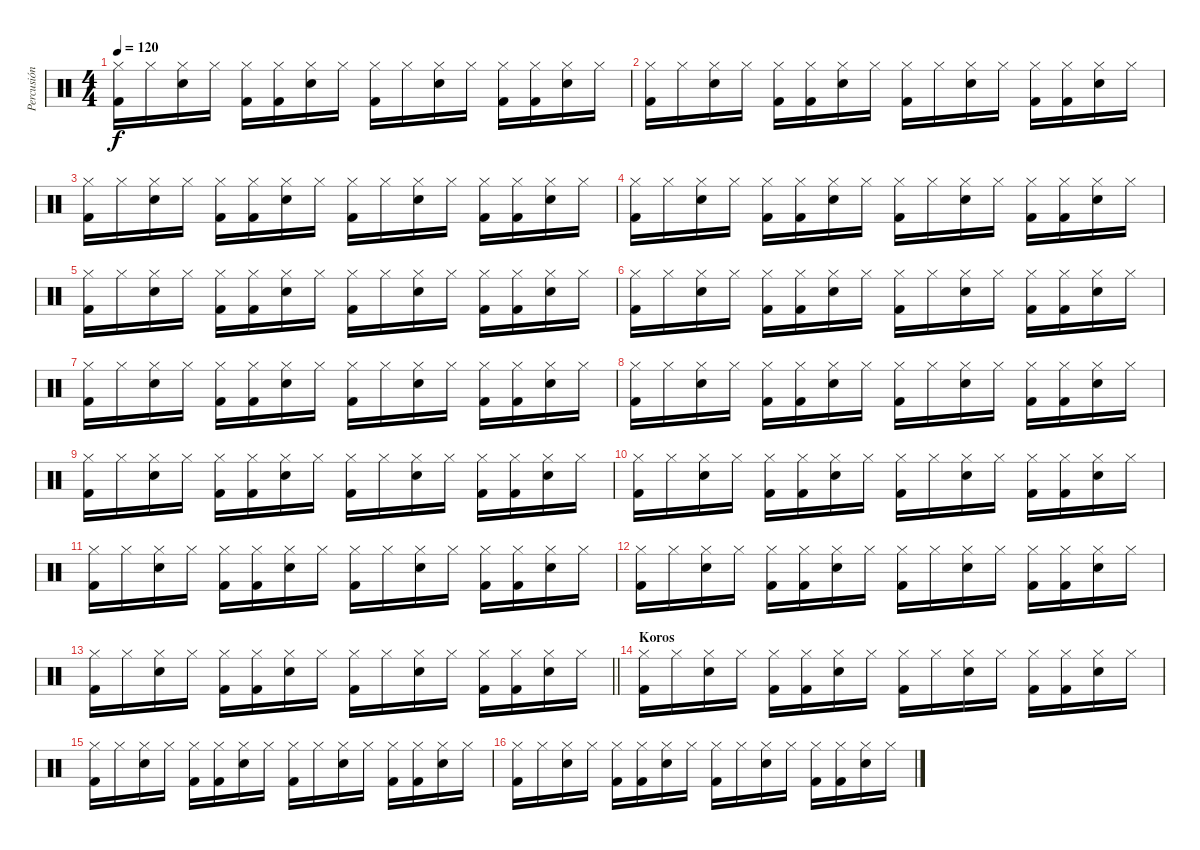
\track ("Percusión" "Percusión") {instrument percussion}
\staff {score}
\articulation defaults
\ts (4 4)
\tempo 120
\clef neutral
\ks c
("Kick (hit) 2" "Hi-Hat (closed)").16{dy f} "Hi-Hat (closed)".16 ("Electric Snare (hit)" "Hi-Hat (closed)").16 "Hi-Hat (closed)".16 ("Kick (hit) 2" "Hi-Hat (closed)").16 ("Kick (hit) 2" "Hi-Hat (closed)").16 ("Electric Snare (hit)" "Hi-Hat (closed)").16 "Hi-Hat (closed)".16 ("Kick (hit) 2" "Hi-Hat (closed)").16 "Hi-Hat (closed)".16 ("Electric Snare (hit)" "Hi-Hat (closed)").16 "Hi-Hat (closed)".16 ("Kick (hit) 2" "Hi-Hat (closed)").16 ("Kick (hit) 2" "Hi-Hat (closed)").16 ("Electric Snare (hit)" "Hi-Hat (closed)").16 "Hi-Hat (closed)".16 |
("Kick (hit) 2" "Hi-Hat (closed)").16 "Hi-Hat (closed)".16 ("Electric Snare (hit)" "Hi-Hat (closed)").16 "Hi-Hat (closed)".16 ("Kick (hit) 2" "Hi-Hat (closed)").16 ("Kick (hit) 2" "Hi-Hat (closed)").16 ("Electric Snare (hit)" "Hi-Hat (closed)").16 "Hi-Hat (closed)".16 ("Kick (hit) 2" "Hi-Hat (closed)").16 "Hi-Hat (closed)".16 ("Electric Snare (hit)" "Hi-Hat (closed)").16 "Hi-Hat (closed)".16 ("Kick (hit) 2" "Hi-Hat (closed)").16 ("Kick (hit) 2" "Hi-Hat (closed)").16 ("Electric Snare (hit)" "Hi-Hat (closed)").16 "Hi-Hat (closed)".16 |
("Kick (hit) 2" "Hi-Hat (closed)").16 "Hi-Hat (closed)".16 ("Electric Snare (hit)" "Hi-Hat (closed)").16 "Hi-Hat (closed)".16 ("Kick (hit) 2" "Hi-Hat (closed)").16 ("Kick (hit) 2" "Hi-Hat (closed)").16 ("Electric Snare (hit)" "Hi-Hat (closed)").16 "Hi-Hat (closed)".16 ("Kick (hit) 2" "Hi-Hat (closed)").16 "Hi-Hat (closed)".16 ("Electric Snare (hit)" "Hi-Hat (closed)").16 "Hi-Hat (closed)".16 ("Kick (hit) 2" "Hi-Hat (closed)").16 ("Kick (hit) 2" "Hi-Hat (closed)").16 ("Electric Snare (hit)" "Hi-Hat (closed)").16 "Hi-Hat (closed)".16 |
("Kick (hit) 2" "Hi-Hat (closed)").16 "Hi-Hat (closed)".16 ("Electric Snare (hit)" "Hi-Hat (closed)").16 "Hi-Hat (closed)".16 ("Kick (hit) 2" "Hi-Hat (closed)").16 ("Kick (hit) 2" "Hi-Hat (closed)").16 ("Electric Snare (hit)" "Hi-Hat (closed)").16 "Hi-Hat (closed)".16 ("Kick (hit) 2" "Hi-Hat (closed)").16 "Hi-Hat (closed)".16 ("Electric Snare (hit)" "Hi-Hat (closed)").16 "Hi-Hat (closed)".16 ("Kick (hit) 2" "Hi-Hat (closed)").16 ("Kick (hit) 2" "Hi-Hat (closed)").16 ("Electric Snare (hit)" "Hi-Hat (closed)").16 "Hi-Hat (closed)".16 |
("Kick (hit) 2" "Hi-Hat (closed)").16 "Hi-Hat (closed)".16 ("Electric Snare (hit)" "Hi-Hat (closed)").16 "Hi-Hat (closed)".16 ("Kick (hit) 2" "Hi-Hat (closed)").16 ("Kick (hit) 2" "Hi-Hat (closed)").16 ("Electric Snare (hit)" "Hi-Hat (closed)").16 "Hi-Hat (closed)".16 ("Kick (hit) 2" "Hi-Hat (closed)").16 "Hi-Hat (closed)".16 ("Electric Snare (hit)" "Hi-Hat (closed)").16 "Hi-Hat (closed)".16 ("Kick (hit) 2" "Hi-Hat (closed)").16 ("Kick (hit) 2" "Hi-Hat (closed)").16 ("Electric Snare (hit)" "Hi-Hat (closed)").16 "Hi-Hat (closed)".16 |
("Kick (hit) 2" "Hi-Hat (closed)").16 "Hi-Hat (closed)".16 ("Electric Snare (hit)" "Hi-Hat (closed)").16 "Hi-Hat (closed)".16 ("Kick (hit) 2" "Hi-Hat (closed)").16 ("Kick (hit) 2" "Hi-Hat (closed)").16 ("Electric Snare (hit)" "Hi-Hat (closed)").16 "Hi-Hat (closed)".16 ("Kick (hit) 2" "Hi-Hat (closed)").16 "Hi-Hat (closed)".16 ("Electric Snare (hit)" "Hi-Hat (closed)").16 "Hi-Hat (closed)".16 ("Kick (hit) 2" "Hi-Hat (closed)").16 ("Kick (hit) 2" "Hi-Hat (closed)").16 ("Electric Snare (hit)" "Hi-Hat (closed)").16 "Hi-Hat (closed)".16 |
("Kick (hit) 2" "Hi-Hat (closed)").16 "Hi-Hat (closed)".16 ("Electric Snare (hit)" "Hi-Hat (closed)").16 "Hi-Hat (closed)".16 ("Kick (hit) 2" "Hi-Hat (closed)").16 ("Kick (hit) 2" "Hi-Hat (closed)").16 ("Electric Snare (hit)" "Hi-Hat (closed)").16 "Hi-Hat (closed)".16 ("Kick (hit) 2" "Hi-Hat (closed)").16 "Hi-Hat (closed)".16 ("Electric Snare (hit)" "Hi-Hat (closed)").16 "Hi-Hat (closed)".16 ("Kick (hit) 2" "Hi-Hat (closed)").16 ("Kick (hit) 2" "Hi-Hat (closed)").16 ("Electric Snare (hit)" "Hi-Hat (closed)").16 "Hi-Hat (closed)".16 |
("Kick (hit) 2" "Hi-Hat (closed)").16 "Hi-Hat (closed)".16 ("Electric Snare (hit)" "Hi-Hat (closed)").16 "Hi-Hat (closed)".16 ("Kick (hit) 2" "Hi-Hat (closed)").16 ("Kick (hit) 2" "Hi-Hat (closed)").16 ("Electric Snare (hit)" "Hi-Hat (closed)").16 "Hi-Hat (closed)".16 ("Kick (hit) 2" "Hi-Hat (closed)").16 "Hi-Hat (closed)".16 ("Electric Snare (hit)" "Hi-Hat (closed)").16 "Hi-Hat (closed)".16 ("Kick (hit) 2" "Hi-Hat (closed)").16 ("Kick (hit) 2" "Hi-Hat (closed)").16 ("Electric Snare (hit)" "Hi-Hat (closed)").16 "Hi-Hat (closed)".16 |
("Kick (hit) 2" "Hi-Hat (closed)").16 "Hi-Hat (closed)".16 ("Electric Snare (hit)" "Hi-Hat (closed)").16 "Hi-Hat (closed)".16 ("Kick (hit) 2" "Hi-Hat (closed)").16 ("Kick (hit) 2" "Hi-Hat (closed)").16 ("Electric Snare (hit)" "Hi-Hat (closed)").16 "Hi-Hat (closed)".16 ("Kick (hit) 2" "Hi-Hat (closed)").16 "Hi-Hat (closed)".16 ("Electric Snare (hit)" "Hi-Hat (closed)").16 "Hi-Hat (closed)".16 ("Kick (hit) 2" "Hi-Hat (closed)").16 ("Kick (hit) 2" "Hi-Hat (closed)").16 ("Electric Snare (hit)" "Hi-Hat (closed)").16 "Hi-Hat (closed)".16 |
("Kick (hit) 2" "Hi-Hat (closed)").16 "Hi-Hat (closed)".16 ("Electric Snare (hit)" "Hi-Hat (closed)").16 "Hi-Hat (closed)".16 ("Kick (hit) 2" "Hi-Hat (closed)").16 ("Kick (hit) 2" "Hi-Hat (closed)").16 ("Electric Snare (hit)" "Hi-Hat (closed)").16 "Hi-Hat (closed)".16 ("Kick (hit) 2" "Hi-Hat (closed)").16 "Hi-Hat (closed)".16 ("Electric Snare (hit)" "Hi-Hat (closed)").16 "Hi-Hat (closed)".16 ("Kick (hit) 2" "Hi-Hat (closed)").16 ("Kick (hit) 2" "Hi-Hat (closed)").16 ("Electric Snare (hit)" "Hi-Hat (closed)").16 "Hi-Hat (closed)".16 |
("Kick (hit) 2" "Hi-Hat (closed)").16 "Hi-Hat (closed)".16 ("Electric Snare (hit)" "Hi-Hat (closed)").16 "Hi-Hat (closed)".16 ("Kick (hit) 2" "Hi-Hat (closed)").16 ("Kick (hit) 2" "Hi-Hat (closed)").16 ("Electric Snare (hit)" "Hi-Hat (closed)").16 "Hi-Hat (closed)".16 ("Kick (hit) 2" "Hi-Hat (closed)").16 "Hi-Hat (closed)".16 ("Electric Snare (hit)" "Hi-Hat (closed)").16 "Hi-Hat (closed)".16 ("Kick (hit) 2" "Hi-Hat (closed)").16 ("Kick (hit) 2" "Hi-Hat (closed)").16 ("Electric Snare (hit)" "Hi-Hat (closed)").16 "Hi-Hat (closed)".16 |
("Kick (hit) 2" "Hi-Hat (closed)").16 "Hi-Hat (closed)".16 ("Electric Snare (hit)" "Hi-Hat (closed)").16 "Hi-Hat (closed)".16 ("Kick (hit) 2" "Hi-Hat (closed)").16 ("Kick (hit) 2" "Hi-Hat (closed)").16 ("Electric Snare (hit)" "Hi-Hat (closed)").16 "Hi-Hat (closed)".16 ("Kick (hit) 2" "Hi-Hat (closed)").16 "Hi-Hat (closed)".16 ("Electric Snare (hit)" "Hi-Hat (closed)").16 "Hi-Hat (closed)".16 ("Kick (hit) 2" "Hi-Hat (closed)").16 ("Kick (hit) 2" "Hi-Hat (closed)").16 ("Electric Snare (hit)" "Hi-Hat (closed)").16 "Hi-Hat (closed)".16 |
\barLineRight lightlight
("Kick (hit) 2" "Hi-Hat (closed)").16 "Hi-Hat (closed)".16 ("Electric Snare (hit)" "Hi-Hat (closed)").16 "Hi-Hat (closed)".16 ("Kick (hit) 2" "Hi-Hat (closed)").16 ("Kick (hit) 2" "Hi-Hat (closed)").16 ("Electric Snare (hit)" "Hi-Hat (closed)").16 "Hi-Hat (closed)".16 ("Kick (hit) 2" "Hi-Hat (closed)").16 "Hi-Hat (closed)".16 ("Electric Snare (hit)" "Hi-Hat (closed)").16 "Hi-Hat (closed)".16 ("Kick (hit) 2" "Hi-Hat (closed)").16 ("Kick (hit) 2" "Hi-Hat (closed)").16 ("Electric Snare (hit)" "Hi-Hat (closed)").16 "Hi-Hat (closed)".16 |
\section ("" "Koros")
("Kick (hit) 2" "Hi-Hat (closed)").16 "Hi-Hat (closed)".16 ("Electric Snare (hit)" "Hi-Hat (closed)").16 "Hi-Hat (closed)".16 ("Kick (hit) 2" "Hi-Hat (closed)").16 ("Kick (hit) 2" "Hi-Hat (closed)").16 ("Electric Snare (hit)" "Hi-Hat (closed)").16 "Hi-Hat (closed)".16 ("Kick (hit) 2" "Hi-Hat (closed)").16 "Hi-Hat (closed)".16 ("Electric Snare (hit)" "Hi-Hat (closed)").16 "Hi-Hat (closed)".16 ("Kick (hit) 2" "Hi-Hat (closed)").16 ("Kick (hit) 2" "Hi-Hat (closed)").16 ("Electric Snare (hit)" "Hi-Hat (closed)").16 "Hi-Hat (closed)".16 |
("Kick (hit) 2" "Hi-Hat (closed)").16 "Hi-Hat (closed)".16 ("Electric Snare (hit)" "Hi-Hat (closed)").16 "Hi-Hat (closed)".16 ("Kick (hit) 2" "Hi-Hat (closed)").16 ("Kick (hit) 2" "Hi-Hat (closed)").16 ("Electric Snare (hit)" "Hi-Hat (closed)").16 "Hi-Hat (closed)".16 ("Kick (hit) 2" "Hi-Hat (closed)").16 "Hi-Hat (closed)".16 ("Electric Snare (hit)" "Hi-Hat (closed)").16 "Hi-Hat (closed)".16 ("Kick (hit) 2" "Hi-Hat (closed)").16 ("Kick (hit) 2" "Hi-Hat (closed)").16 ("Electric Snare (hit)" "Hi-Hat (closed)").16 "Hi-Hat (closed)".16 |
("Kick (hit) 2" "Hi-Hat (closed)").16 "Hi-Hat (closed)".16 ("Electric Snare (hit)" "Hi-Hat (closed)").16 "Hi-Hat (closed)".16 ("Kick (hit) 2" "Hi-Hat (closed)").16 ("Kick (hit) 2" "Hi-Hat (closed)").16 ("Electric Snare (hit)" "Hi-Hat (closed)").16 "Hi-Hat (closed)".16 ("Kick (hit) 2" "Hi-Hat (closed)").16 "Hi-Hat (closed)".16 ("Electric Snare (hit)" "Hi-Hat (closed)").16 "Hi-Hat (closed)".16 ("Kick (hit) 2" "Hi-Hat (closed)").16 ("Kick (hit) 2" "Hi-Hat (closed)").16 ("Electric Snare (hit)" "Hi-Hat (closed)").16 "Hi-Hat (closed)".16
